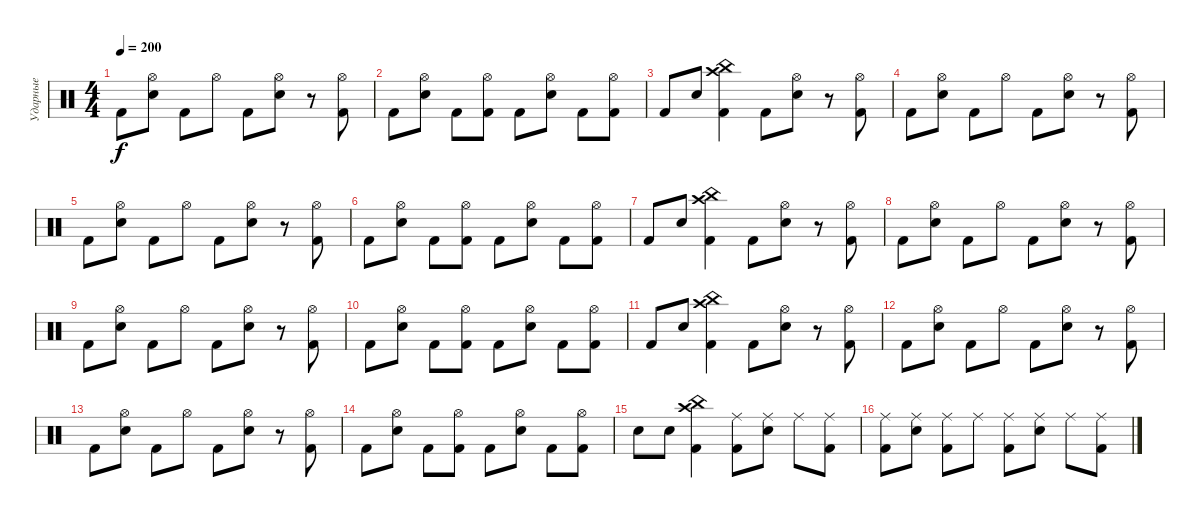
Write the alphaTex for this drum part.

\track ("Ударные" "Ударные") {instrument percussion}
\staff {score}
\articulation defaults
\ts (4 4)
\tempo 200
\clef neutral
\ks c "Kick (hit) 2".8{dy f}
("Electric Snare (hit)" "Hi-Hat (open)").8 "Kick (hit) 2".8 "Hi-Hat (open)".8 "Kick (hit) 2".8 ("Electric Snare (hit)" "Hi-Hat (open)").8 r.8 ("Kick (hit) 2" "Hi-Hat (open)").8 |
"Kick (hit) 2".8 ("Hi-Hat (open)" "Electric Snare (hit)").8 "Kick (hit) 2".8 ("Kick (hit) 2" "Hi-Hat (open)").8 "Kick (hit) 2".8 ("Electric Snare (hit)" "Hi-Hat (open)").8 "Kick (hit) 2".8 ("Kick (hit) 2" "Hi-Hat (open)").8 |
"Kick (hit) 2".8 "Electric Snare (hit)".8 ("Kick (hit) 2" "China (hit)" "Crash high (hit)").4 "Kick (hit) 2".8 ("Electric Snare (hit)" "Hi-Hat (open)").8 r.8 ("Kick (hit) 2" "Hi-Hat (open)").8 |
"Kick (hit) 2".8 ("Electric Snare (hit)" "Hi-Hat (open)").8 "Kick (hit) 2".8 "Hi-Hat (open)".8 "Kick (hit) 2".8 ("Electric Snare (hit)" "Hi-Hat (open)").8 r.8 ("Hi-Hat (open)" "Kick (hit) 2").8 |
"Kick (hit) 2".8 ("Electric Snare (hit)" "Hi-Hat (open)").8 "Kick (hit) 2".8 "Hi-Hat (open)".8 "Kick (hit) 2".8 ("Electric Snare (hit)" "Hi-Hat (open)").8 r.8 ("Kick (hit) 2" "Hi-Hat (open)").8 |
"Kick (hit) 2".8 ("Hi-Hat (open)" "Electric Snare (hit)").8 "Kick (hit) 2".8 ("Kick (hit) 2" "Hi-Hat (open)").8 "Kick (hit) 2".8 ("Electric Snare (hit)" "Hi-Hat (open)").8 "Kick (hit) 2".8 ("Kick (hit) 2" "Hi-Hat (open)").8 |
"Kick (hit) 2".8 "Electric Snare (hit)".8 ("Kick (hit) 2" "China (hit)" "Crash high (hit)").4 "Kick (hit) 2".8 ("Electric Snare (hit)" "Hi-Hat (open)").8 r.8 ("Kick (hit) 2" "Hi-Hat (open)").8 |
"Kick (hit) 2".8 ("Electric Snare (hit)" "Hi-Hat (open)").8 "Kick (hit) 2".8 "Hi-Hat (open)".8 "Kick (hit) 2".8 ("Electric Snare (hit)" "Hi-Hat (open)").8 r.8 ("Hi-Hat (open)" "Kick (hit) 2").8 |
"Kick (hit) 2".8 ("Electric Snare (hit)" "Hi-Hat (open)").8 "Kick (hit) 2".8 "Hi-Hat (open)".8 "Kick (hit) 2".8 ("Electric Snare (hit)" "Hi-Hat (open)").8 r.8 ("Kick (hit) 2" "Hi-Hat (open)").8 |
"Kick (hit) 2".8 ("Hi-Hat (open)" "Electric Snare (hit)").8 "Kick (hit) 2".8 ("Kick (hit) 2" "Hi-Hat (open)").8 "Kick (hit) 2".8 ("Electric Snare (hit)" "Hi-Hat (open)").8 "Kick (hit) 2".8 ("Kick (hit) 2" "Hi-Hat (open)").8 |
"Kick (hit) 2".8 "Electric Snare (hit)".8 ("Kick (hit) 2" "China (hit)" "Crash high (hit)").4 "Kick (hit) 2".8 ("Electric Snare (hit)" "Hi-Hat (open)").8 r.8 ("Kick (hit) 2" "Hi-Hat (open)").8 |
"Kick (hit) 2".8 ("Electric Snare (hit)" "Hi-Hat (open)").8 "Kick (hit) 2".8 "Hi-Hat (open)".8 "Kick (hit) 2".8 ("Electric Snare (hit)" "Hi-Hat (open)").8 r.8 ("Hi-Hat (open)" "Kick (hit) 2").8 |
"Kick (hit) 2".8 ("Electric Snare (hit)" "Hi-Hat (open)").8 "Kick (hit) 2".8 "Hi-Hat (open)".8 "Kick (hit) 2".8 ("Electric Snare (hit)" "Hi-Hat (open)").8 r.8 ("Kick (hit) 2" "Hi-Hat (open)").8 |
"Kick (hit) 2".8 ("Hi-Hat (open)" "Electric Snare (hit)").8 "Kick (hit) 2".8 ("Kick (hit) 2" "Hi-Hat (open)").8 "Kick (hit) 2".8 ("Electric Snare (hit)" "Hi-Hat (open)").8 "Kick (hit) 2".8 ("Kick (hit) 2" "Hi-Hat (open)").8 |
"Snare (hit) 2".8 "Snare (hit) 2".8 ("Kick (hit) 2" "China (hit)" "Crash high (hit)").4 ("Kick (hit) 2" "Ride (middle)").8 ("Electric Snare (hit)" "Ride (middle)").8 "Ride (middle)".8 ("Kick (hit) 2" "Ride (middle)").8 |
("Kick (hit) 2" "Ride (middle)").8 ("Electric Snare (hit)" "Ride (middle)").8 ("Kick (hit) 2" "Ride (middle)").8 "Ride (middle)".8 ("Kick (hit) 2" "Ride (middle)").8 ("Electric Snare (hit)" "Ride (middle)").8 "Ride (middle)".8 ("Kick (hit) 2" "Ride (middle)").8
